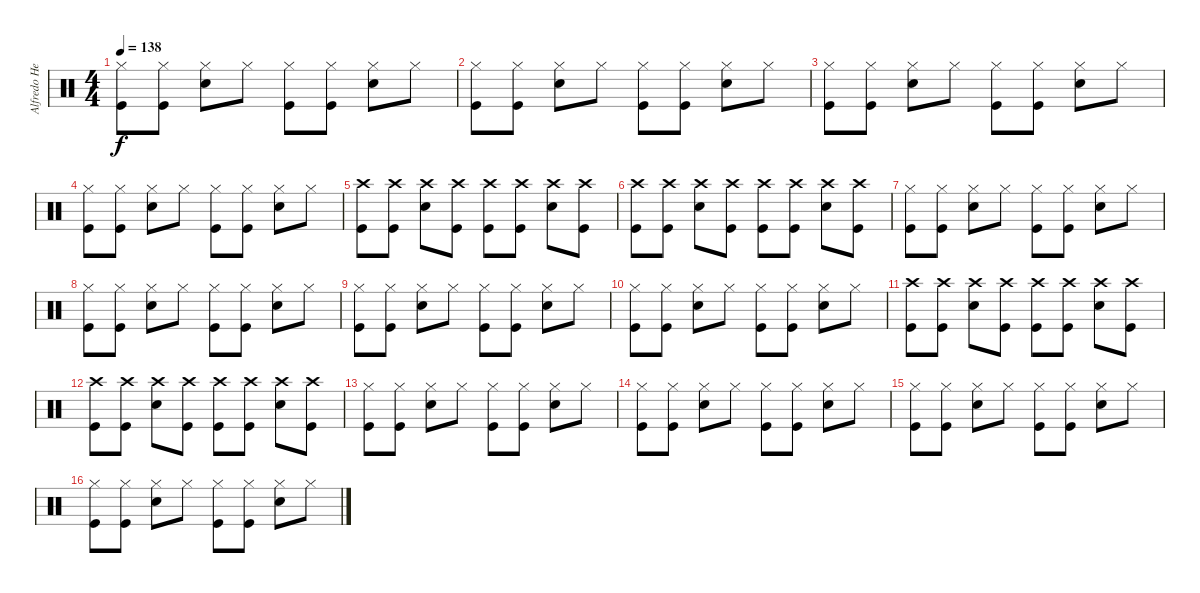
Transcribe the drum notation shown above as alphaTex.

\track ("Alfredo Hernandez" "Alfredo He") {instrument percussion}
\staff {score}
\articulation defaults
\ts (4 4)
\tempo 138
\clef neutral
\ks c
("Kick (hit)" "Hi-Hat (closed)").8{dy f} ("Kick (hit)" "Hi-Hat (closed)").8 ("Snare (hit) 2" "Hi-Hat (closed)").8 "Hi-Hat (closed)".8 ("Kick (hit)" "Hi-Hat (closed)").8 ("Kick (hit)" "Hi-Hat (closed)").8 ("Snare (hit) 2" "Hi-Hat (closed)").8 "Hi-Hat (closed)".8 |
("Kick (hit)" "Hi-Hat (closed)").8 ("Kick (hit)" "Hi-Hat (closed)").8 ("Snare (hit) 2" "Hi-Hat (closed)").8 "Hi-Hat (closed)".8 ("Kick (hit)" "Hi-Hat (closed)").8 ("Kick (hit)" "Hi-Hat (closed)").8 ("Snare (hit) 2" "Hi-Hat (closed)").8 "Hi-Hat (closed)".8 |
("Kick (hit)" "Hi-Hat (closed)").8 ("Kick (hit)" "Hi-Hat (closed)").8 ("Snare (hit) 2" "Hi-Hat (closed)").8 "Hi-Hat (closed)".8 ("Kick (hit)" "Hi-Hat (closed)").8 ("Kick (hit)" "Hi-Hat (closed)").8 ("Snare (hit) 2" "Hi-Hat (closed)").8 "Hi-Hat (closed)".8 |
("Kick (hit)" "Hi-Hat (closed)").8 ("Kick (hit)" "Hi-Hat (closed)").8 ("Snare (hit) 2" "Hi-Hat (closed)").8 "Hi-Hat (closed)".8 ("Kick (hit)" "Hi-Hat (closed)").8 ("Kick (hit)" "Hi-Hat (closed)").8 ("Snare (hit) 2" "Hi-Hat (closed)").8 "Hi-Hat (closed)".8 |
("Kick (hit)" "Crash high (hit)").8 ("Kick (hit)" "Crash high (hit)").8 ("Snare (hit) 2" "Crash high (hit)").8 ("Kick (hit)" "Crash high (hit)").8 ("Kick (hit)" "Crash high (hit)").8 ("Kick (hit)" "Crash high (hit)").8 ("Snare (hit) 2" "Crash high (hit)").8 ("Kick (hit)" "Crash high (hit)").8 |
("Kick (hit)" "Crash high (hit)").8 ("Kick (hit)" "Crash high (hit)").8 ("Snare (hit) 2" "Crash high (hit)").8 ("Kick (hit)" "Crash high (hit)").8 ("Kick (hit)" "Crash high (hit)").8 ("Kick (hit)" "Crash high (hit)").8 ("Snare (hit) 2" "Crash high (hit)").8 ("Kick (hit)" "Crash high (hit)").8 |
("Kick (hit)" "Hi-Hat (closed)").8 ("Kick (hit)" "Hi-Hat (closed)").8 ("Snare (hit) 2" "Hi-Hat (closed)").8 "Hi-Hat (closed)".8 ("Kick (hit)" "Hi-Hat (closed)").8 ("Kick (hit)" "Hi-Hat (closed)").8 ("Snare (hit) 2" "Hi-Hat (closed)").8 "Hi-Hat (closed)".8 |
("Kick (hit)" "Hi-Hat (closed)").8 ("Kick (hit)" "Hi-Hat (closed)").8 ("Snare (hit) 2" "Hi-Hat (closed)").8 "Hi-Hat (closed)".8 ("Kick (hit)" "Hi-Hat (closed)").8 ("Kick (hit)" "Hi-Hat (closed)").8 ("Snare (hit) 2" "Hi-Hat (closed)").8 "Hi-Hat (closed)".8 |
("Kick (hit)" "Hi-Hat (closed)").8 ("Kick (hit)" "Hi-Hat (closed)").8 ("Snare (hit) 2" "Hi-Hat (closed)").8 "Hi-Hat (closed)".8 ("Kick (hit)" "Hi-Hat (closed)").8 ("Kick (hit)" "Hi-Hat (closed)").8 ("Snare (hit) 2" "Hi-Hat (closed)").8 "Hi-Hat (closed)".8 |
("Kick (hit)" "Hi-Hat (closed)").8 ("Kick (hit)" "Hi-Hat (closed)").8 ("Snare (hit) 2" "Hi-Hat (closed)").8 "Hi-Hat (closed)".8 ("Kick (hit)" "Hi-Hat (closed)").8 ("Kick (hit)" "Hi-Hat (closed)").8 ("Snare (hit) 2" "Hi-Hat (closed)").8 "Hi-Hat (closed)".8 |
("Kick (hit)" "Crash high (hit)").8 ("Kick (hit)" "Crash high (hit)").8 ("Snare (hit) 2" "Crash high (hit)").8 ("Kick (hit)" "Crash high (hit)").8 ("Kick (hit)" "Crash high (hit)").8 ("Kick (hit)" "Crash high (hit)").8 ("Snare (hit) 2" "Crash high (hit)").8 ("Kick (hit)" "Crash high (hit)").8 |
("Kick (hit)" "Crash high (hit)").8 ("Kick (hit)" "Crash high (hit)").8 ("Snare (hit) 2" "Crash high (hit)").8 ("Kick (hit)" "Crash high (hit)").8 ("Kick (hit)" "Crash high (hit)").8 ("Kick (hit)" "Crash high (hit)").8 ("Snare (hit) 2" "Crash high (hit)").8 ("Kick (hit)" "Crash high (hit)").8 |
("Kick (hit)" "Hi-Hat (closed)").8 ("Kick (hit)" "Hi-Hat (closed)").8 ("Snare (hit) 2" "Hi-Hat (closed)").8 "Hi-Hat (closed)".8 ("Kick (hit)" "Hi-Hat (closed)").8 ("Kick (hit)" "Hi-Hat (closed)").8 ("Snare (hit) 2" "Hi-Hat (closed)").8 "Hi-Hat (closed)".8 |
("Kick (hit)" "Hi-Hat (closed)").8 ("Kick (hit)" "Hi-Hat (closed)").8 ("Snare (hit) 2" "Hi-Hat (closed)").8 "Hi-Hat (closed)".8 ("Kick (hit)" "Hi-Hat (closed)").8 ("Kick (hit)" "Hi-Hat (closed)").8 ("Snare (hit) 2" "Hi-Hat (closed)").8 "Hi-Hat (closed)".8 |
("Kick (hit)" "Hi-Hat (closed)").8 ("Kick (hit)" "Hi-Hat (closed)").8 ("Snare (hit) 2" "Hi-Hat (closed)").8 "Hi-Hat (closed)".8 ("Kick (hit)" "Hi-Hat (closed)").8 ("Kick (hit)" "Hi-Hat (closed)").8 ("Snare (hit) 2" "Hi-Hat (closed)").8 "Hi-Hat (closed)".8 |
("Kick (hit)" "Hi-Hat (closed)").8 ("Kick (hit)" "Hi-Hat (closed)").8 ("Snare (hit) 2" "Hi-Hat (closed)").8 "Hi-Hat (closed)".8 ("Kick (hit)" "Hi-Hat (closed)").8 ("Kick (hit)" "Hi-Hat (closed)").8 ("Snare (hit) 2" "Hi-Hat (closed)").8 "Hi-Hat (closed)".8
